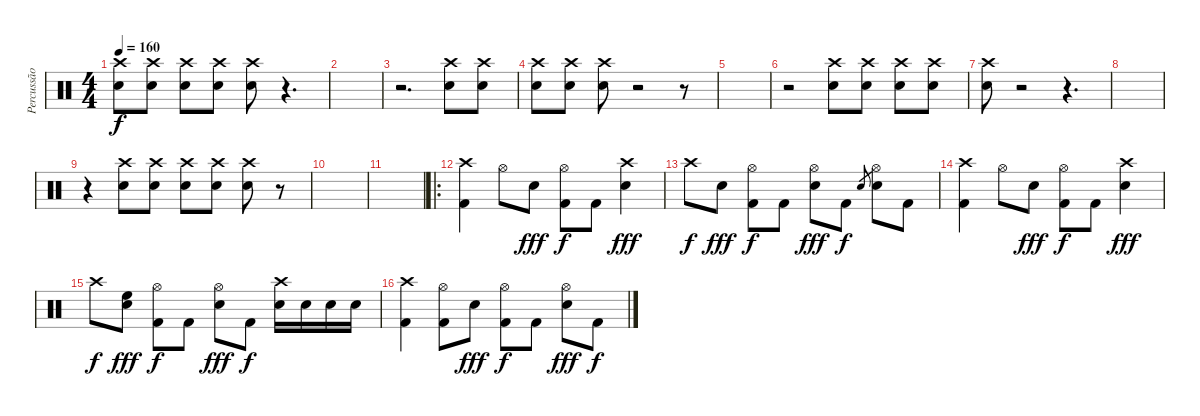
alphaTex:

\track ("Percussão" "Percussão") {instrument percussion}
\staff {score}
\articulation defaults
\ts (4 4)
\tempo 160
\clef neutral
\ks c
("Crash high (hit)" "Electric Snare (hit)").8{dy f} ("Crash high (hit)" "Electric Snare (hit)").8 ("Crash high (hit)" "Electric Snare (hit)").8 ("Crash high (hit)" "Electric Snare (hit)").8 ("Crash high (hit)" "Electric Snare (hit)").8 r.4{d} |
|
r.2{d} ("Crash high (hit)" "Electric Snare (hit)").8 ("Crash high (hit)" "Electric Snare (hit)").8 |
("Crash high (hit)" "Electric Snare (hit)").8 ("Crash high (hit)" "Electric Snare (hit)").8 ("Crash high (hit)" "Electric Snare (hit)").8 r.2 r.8 |
|
r.2 ("Crash high (hit)" "Electric Snare (hit)").8 ("Crash high (hit)" "Electric Snare (hit)").8 ("Crash high (hit)" "Electric Snare (hit)").8 ("Crash high (hit)" "Electric Snare (hit)").8 |
("Crash high (hit)" "Electric Snare (hit)").8 r.2 r.4{d} |
|
r.4 ("Crash high (hit)" "Electric Snare (hit)").8 ("Crash high (hit)" "Electric Snare (hit)").8 ("Crash high (hit)" "Electric Snare (hit)").8 ("Crash high (hit)" "Electric Snare (hit)").8 ("Crash high (hit)" "Electric Snare (hit)").8 r.8 |
|
|
\ro
("Crash high (hit)" "Kick (hit) 2").4 "Hi-Hat (open)".8 "Electric Snare (hit)".8{dy fff} ("Hi-Hat (open)" "Kick (hit) 2").8{dy f} "Kick (hit) 2".8 ("Crash high (hit)" "Electric Snare (hit)").4{dy fff} |
"Crash high (hit)".8{dy f} "Electric Snare (hit)".8{dy fff} ("Hi-Hat (open)" "Kick (hit) 2").8{dy f} "Kick (hit) 2".8 ("Hi-Hat (open)" "Electric Snare (hit)").8{dy fff} "Kick (hit) 2".8{dy f} "Electric Snare (hit)".8{gr} ("Hi-Hat (open)" "Electric Snare (hit)").8 "Kick (hit) 2".8 |
("Crash high (hit)" "Kick (hit) 2").4 "Hi-Hat (open)".8 "Electric Snare (hit)".8{dy fff} ("Hi-Hat (open)" "Kick (hit) 2").8{dy f} "Kick (hit) 2".8 ("Crash high (hit)" "Electric Snare (hit)").4{dy fff} |
"Crash high (hit)".8{dy f} ("High Floor Tom (hit)" "Electric Snare (hit)").8{dy fff} ("Hi-Hat (open)" "Kick (hit) 2").8{dy f} "Kick (hit) 2".8 ("Hi-Hat (open)" "Electric Snare (hit)").8{dy fff} "Kick (hit) 2".8{dy f} ("Crash high (hit)" "Electric Snare (hit)").16 "Electric Snare (hit)".16 "Electric Snare (hit)".16 "Electric Snare (hit)".16 |
("Crash high (hit)" "Kick (hit) 2").4 ("Hi-Hat (open)" "Kick (hit) 2").8 "Electric Snare (hit)".8{dy fff} ("Hi-Hat (open)" "Kick (hit) 2").8{dy f} "Kick (hit) 2".8 ("Hi-Hat (open)" "Electric Snare (hit)").8{dy fff} "Kick (hit) 2".8{dy f}
